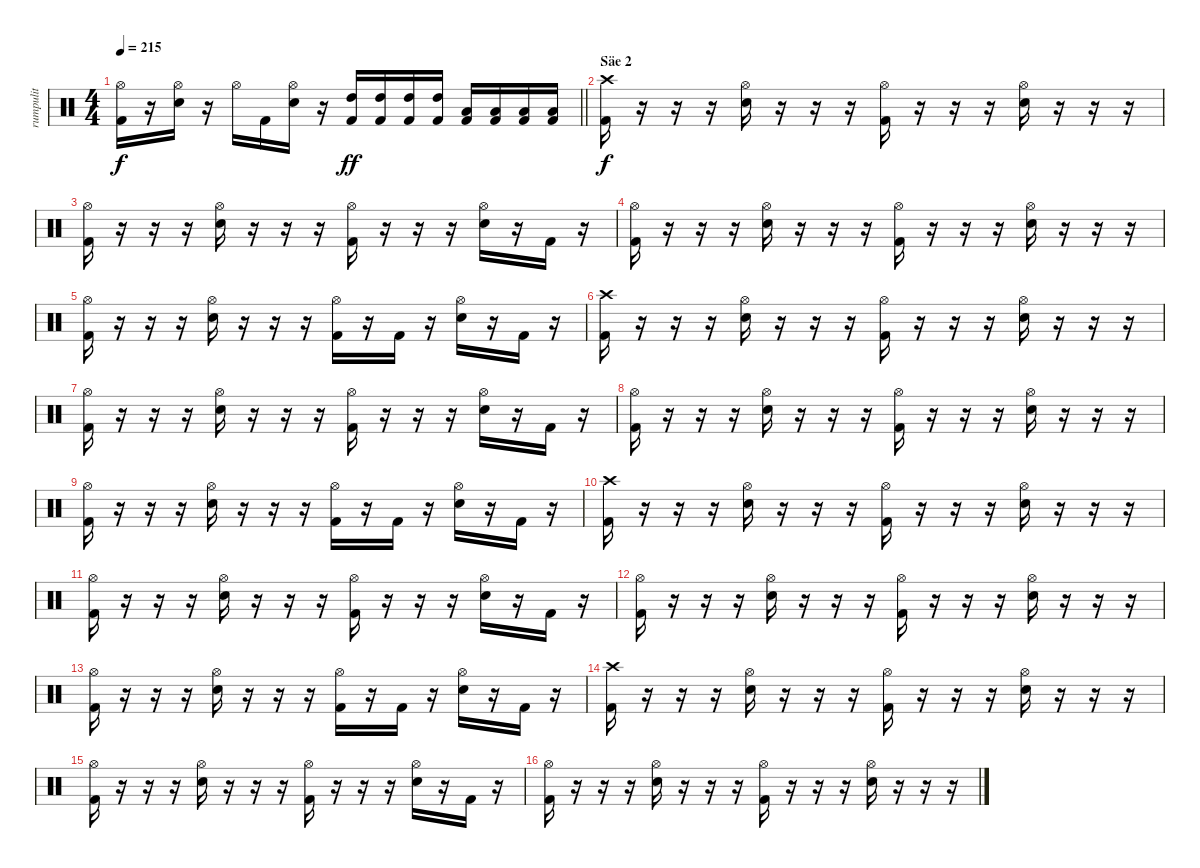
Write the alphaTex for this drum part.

\track ("rumpulit" "rumpulit") {instrument percussion}
\staff {score}
\articulation defaults
\ts (4 4)
\tempo 215
\clef neutral
\barLineRight lightlight
\ks c
("Hi-Hat (open)" "Kick (hit) 2").16{dy f} r.16 ("Hi-Hat (open)" "Electric Snare (hit)").16 r.16 "Hi-Hat (open)".16 "Kick (hit) 2".16 ("Hi-Hat (open)" "Electric Snare (hit)").16 r.16 ("Kick (hit) 2" "High Tom (hit)").16{dy ff} ("Kick (hit) 2" "High Tom (hit)").16 ("Kick (hit) 2" "High Tom (hit)").16 ("Kick (hit) 2" "High Tom (hit)").16 ("Kick (hit) 2" "Low Floor Tom (hit)").16 ("Kick (hit) 2" "Low Floor Tom (hit)").16 ("Kick (hit) 2" "Low Floor Tom (hit)").16 ("Kick (hit) 2" "Low Floor Tom (hit)").16 |
\section ("" "Säe 2")
("Crash high (hit)" "Kick (hit) 2").16{dy f} r.16 r.16 r.16 ("Hi-Hat (open)" "Electric Snare (hit)").16 r.16 r.16 r.16 ("Hi-Hat (open)" "Kick (hit) 2").16 r.16 r.16 r.16 ("Hi-Hat (open)" "Electric Snare (hit)").16 r.16 r.16 r.16 |
("Hi-Hat (open)" "Kick (hit) 2").16 r.16 r.16 r.16 ("Hi-Hat (open)" "Electric Snare (hit)").16 r.16 r.16 r.16 ("Hi-Hat (open)" "Kick (hit) 2").16 r.16 r.16 r.16 ("Hi-Hat (open)" "Electric Snare (hit)").16 r.16 "Kick (hit) 2".16 r.16 |
("Hi-Hat (open)" "Kick (hit) 2").16 r.16 r.16 r.16 ("Hi-Hat (open)" "Electric Snare (hit)").16 r.16 r.16 r.16 ("Hi-Hat (open)" "Kick (hit) 2").16 r.16 r.16 r.16 ("Hi-Hat (open)" "Electric Snare (hit)").16 r.16 r.16 r.16 |
("Hi-Hat (open)" "Kick (hit) 2").16 r.16 r.16 r.16 ("Hi-Hat (open)" "Electric Snare (hit)").16 r.16 r.16 r.16 ("Hi-Hat (open)" "Kick (hit) 2").16 r.16 "Kick (hit) 2".16 r.16 ("Hi-Hat (open)" "Electric Snare (hit)").16 r.16 "Kick (hit) 2".16 r.16 |
("Crash high (hit)" "Kick (hit) 2").16 r.16 r.16 r.16 ("Hi-Hat (open)" "Electric Snare (hit)").16 r.16 r.16 r.16 ("Hi-Hat (open)" "Kick (hit) 2").16 r.16 r.16 r.16 ("Hi-Hat (open)" "Electric Snare (hit)").16 r.16 r.16 r.16 |
("Hi-Hat (open)" "Kick (hit) 2").16 r.16 r.16 r.16 ("Hi-Hat (open)" "Electric Snare (hit)").16 r.16 r.16 r.16 ("Hi-Hat (open)" "Kick (hit) 2").16 r.16 r.16 r.16 ("Hi-Hat (open)" "Electric Snare (hit)").16 r.16 "Kick (hit) 2".16 r.16 |
("Hi-Hat (open)" "Kick (hit) 2").16 r.16 r.16 r.16 ("Hi-Hat (open)" "Electric Snare (hit)").16 r.16 r.16 r.16 ("Hi-Hat (open)" "Kick (hit) 2").16 r.16 r.16 r.16 ("Hi-Hat (open)" "Electric Snare (hit)").16 r.16 r.16 r.16 |
("Hi-Hat (open)" "Kick (hit) 2").16 r.16 r.16 r.16 ("Hi-Hat (open)" "Electric Snare (hit)").16 r.16 r.16 r.16 ("Hi-Hat (open)" "Kick (hit) 2").16 r.16 "Kick (hit) 2".16 r.16 ("Hi-Hat (open)" "Electric Snare (hit)").16 r.16 "Kick (hit) 2".16 r.16 |
("Crash high (hit)" "Kick (hit) 2").16 r.16 r.16 r.16 ("Hi-Hat (open)" "Electric Snare (hit)").16 r.16 r.16 r.16 ("Hi-Hat (open)" "Kick (hit) 2").16 r.16 r.16 r.16 ("Hi-Hat (open)" "Electric Snare (hit)").16 r.16 r.16 r.16 |
("Hi-Hat (open)" "Kick (hit) 2").16 r.16 r.16 r.16 ("Hi-Hat (open)" "Electric Snare (hit)").16 r.16 r.16 r.16 ("Hi-Hat (open)" "Kick (hit) 2").16 r.16 r.16 r.16 ("Hi-Hat (open)" "Electric Snare (hit)").16 r.16 "Kick (hit) 2".16 r.16 |
("Hi-Hat (open)" "Kick (hit) 2").16 r.16 r.16 r.16 ("Hi-Hat (open)" "Electric Snare (hit)").16 r.16 r.16 r.16 ("Hi-Hat (open)" "Kick (hit) 2").16 r.16 r.16 r.16 ("Hi-Hat (open)" "Electric Snare (hit)").16 r.16 r.16 r.16 |
("Hi-Hat (open)" "Kick (hit) 2").16 r.16 r.16 r.16 ("Hi-Hat (open)" "Electric Snare (hit)").16 r.16 r.16 r.16 ("Hi-Hat (open)" "Kick (hit) 2").16 r.16 "Kick (hit) 2".16 r.16 ("Hi-Hat (open)" "Electric Snare (hit)").16 r.16 "Kick (hit) 2".16 r.16 |
("Crash high (hit)" "Kick (hit) 2").16 r.16 r.16 r.16 ("Hi-Hat (open)" "Electric Snare (hit)").16 r.16 r.16 r.16 ("Hi-Hat (open)" "Kick (hit) 2").16 r.16 r.16 r.16 ("Hi-Hat (open)" "Electric Snare (hit)").16 r.16 r.16 r.16 |
("Hi-Hat (open)" "Kick (hit) 2").16 r.16 r.16 r.16 ("Hi-Hat (open)" "Electric Snare (hit)").16 r.16 r.16 r.16 ("Hi-Hat (open)" "Kick (hit) 2").16 r.16 r.16 r.16 ("Hi-Hat (open)" "Electric Snare (hit)").16 r.16 "Kick (hit) 2".16 r.16 |
("Hi-Hat (open)" "Kick (hit) 2").16 r.16 r.16 r.16 ("Hi-Hat (open)" "Electric Snare (hit)").16 r.16 r.16 r.16 ("Hi-Hat (open)" "Kick (hit) 2").16 r.16 r.16 r.16 ("Hi-Hat (open)" "Electric Snare (hit)").16 r.16 r.16 r.16
